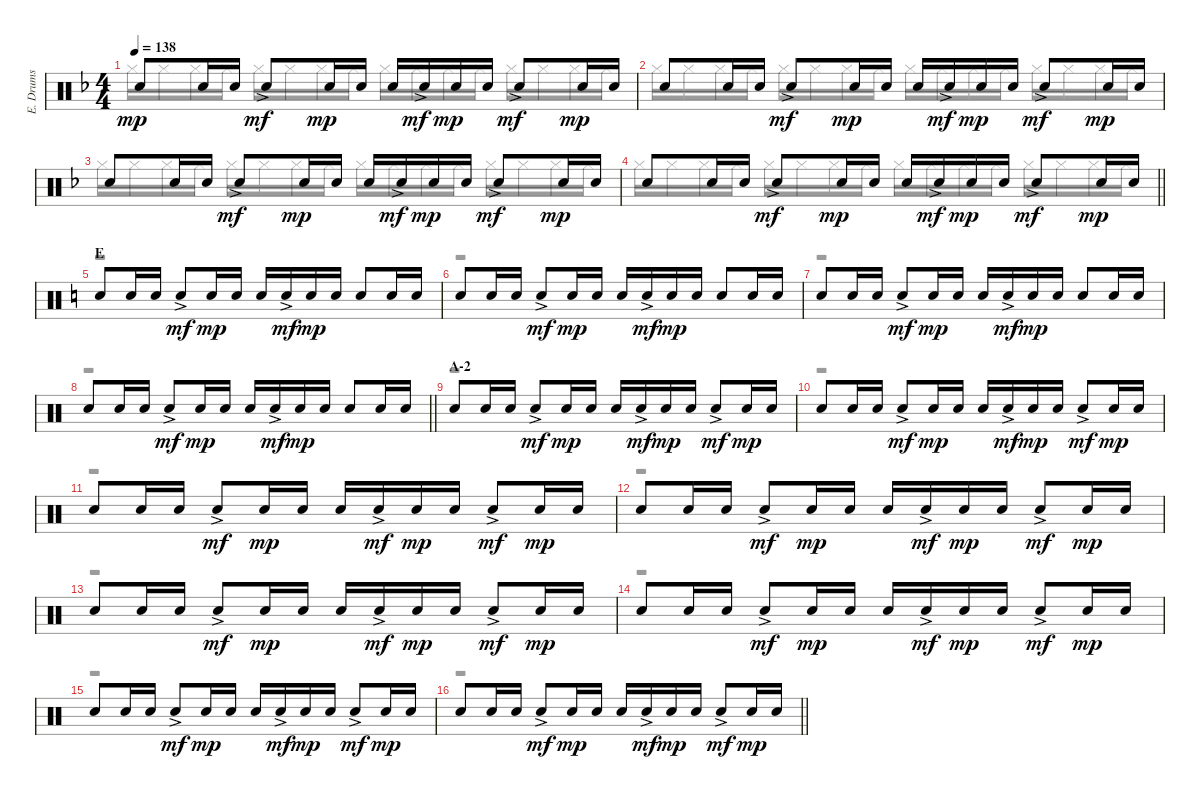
\track ("E. Drums" "E. Drums") {instrument percussion}
\staff {score}
\articulation defaults
\voice
\ts (4 4)
\tempo 138
\clef neutral
\ks f "Electric Snare (hit)".8{dy mp} "Electric Snare (hit)".16 "Electric Snare (hit)".16 "Electric Snare (hit)"{ac}.8{dy mf} "Electric Snare (hit)".16{dy mp} "Electric Snare (hit)".16 "Electric Snare (hit)".16 "Electric Snare (hit)"{ac}.16{dy mf} "Electric Snare (hit)".16{dy mp} "Electric Snare (hit)".16 "Electric Snare (hit)"{ac}.8{dy mf} "Electric Snare (hit)".16{dy mp} "Electric Snare (hit)".16
|
"Electric Snare (hit)".8 "Electric Snare (hit)".16 "Electric Snare (hit)".16 "Electric Snare (hit)"{ac}.8{dy mf} "Electric Snare (hit)".16{dy mp} "Electric Snare (hit)".16 "Electric Snare (hit)".16 "Electric Snare (hit)"{ac}.16{dy mf} "Electric Snare (hit)".16{dy mp} "Electric Snare (hit)".16 "Electric Snare (hit)"{ac}.8{dy mf} "Electric Snare (hit)".16{dy mp} "Electric Snare (hit)".16 |
"Electric Snare (hit)".8 "Electric Snare (hit)".16 "Electric Snare (hit)".16 "Electric Snare (hit)"{ac}.8{dy mf} "Electric Snare (hit)".16{dy mp} "Electric Snare (hit)".16 "Electric Snare (hit)".16 "Electric Snare (hit)"{ac}.16{dy mf} "Electric Snare (hit)".16{dy mp} "Electric Snare (hit)".16 "Electric Snare (hit)"{ac}.8{dy mf} "Electric Snare (hit)".16{dy mp} "Electric Snare (hit)".16 |
\barLineRight lightlight "Electric Snare (hit)".8 "Electric Snare (hit)".16 "Electric Snare (hit)".16 "Electric Snare (hit)"{ac}.8{dy mf} "Electric Snare (hit)".16{dy mp} "Electric Snare (hit)".16 "Electric Snare (hit)".16 "Electric Snare (hit)"{ac}.16{dy mf} "Electric Snare (hit)".16{dy mp} "Electric Snare (hit)".16 "Electric Snare (hit)"{ac}.8{dy mf} "Electric Snare (hit)".16{dy mp} "Electric Snare (hit)".16
|
\section ("" "E")
\ks c "Electric Snare (hit)".8 "Electric Snare (hit)".16 "Electric Snare (hit)".16 "Electric Snare (hit)"{ac}.8{dy mf} "Electric Snare (hit)".16{dy mp} "Electric Snare (hit)".16 "Electric Snare (hit)".16 "Electric Snare (hit)"{ac}.16{dy mf} "Electric Snare (hit)".16{dy mp} "Electric Snare (hit)".16 "Electric Snare (hit)".8 "Electric Snare (hit)".16 "Electric Snare (hit)".16
|
"Electric Snare (hit)".8 "Electric Snare (hit)".16 "Electric Snare (hit)".16 "Electric Snare (hit)"{ac}.8{dy mf} "Electric Snare (hit)".16{dy mp} "Electric Snare (hit)".16 "Electric Snare (hit)".16 "Electric Snare (hit)"{ac}.16{dy mf} "Electric Snare (hit)".16{dy mp} "Electric Snare (hit)".16 "Electric Snare (hit)".8 "Electric Snare (hit)".16 "Electric Snare (hit)".16 |
"Electric Snare (hit)".8 "Electric Snare (hit)".16 "Electric Snare (hit)".16 "Electric Snare (hit)"{ac}.8{dy mf} "Electric Snare (hit)".16{dy mp} "Electric Snare (hit)".16 "Electric Snare (hit)".16 "Electric Snare (hit)"{ac}.16{dy mf} "Electric Snare (hit)".16{dy mp} "Electric Snare (hit)".16 "Electric Snare (hit)".8 "Electric Snare (hit)".16 "Electric Snare (hit)".16 |
\barLineRight lightlight "Electric Snare (hit)".8 "Electric Snare (hit)".16 "Electric Snare (hit)".16 "Electric Snare (hit)"{ac}.8{dy mf} "Electric Snare (hit)".16{dy mp} "Electric Snare (hit)".16 "Electric Snare (hit)".16 "Electric Snare (hit)"{ac}.16{dy mf} "Electric Snare (hit)".16{dy mp} "Electric Snare (hit)".16 "Electric Snare (hit)".8 "Electric Snare (hit)".16 "Electric Snare (hit)".16
|
\section ("" "A-2")
"Electric Snare (hit)".8 "Electric Snare (hit)".16 "Electric Snare (hit)".16 "Electric Snare (hit)"{ac}.8{dy mf} "Electric Snare (hit)".16{dy mp} "Electric Snare (hit)".16 "Electric Snare (hit)".16 "Electric Snare (hit)"{ac}.16{dy mf} "Electric Snare (hit)".16{dy mp} "Electric Snare (hit)".16 "Electric Snare (hit)"{ac}.8{dy mf} "Electric Snare (hit)".16{dy mp} "Electric Snare (hit)".16 |
"Electric Snare (hit)".8 "Electric Snare (hit)".16 "Electric Snare (hit)".16 "Electric Snare (hit)"{ac}.8{dy mf} "Electric Snare (hit)".16{dy mp} "Electric Snare (hit)".16 "Electric Snare (hit)".16 "Electric Snare (hit)"{ac}.16{dy mf} "Electric Snare (hit)".16{dy mp} "Electric Snare (hit)".16 "Electric Snare (hit)"{ac}.8{dy mf} "Electric Snare (hit)".16{dy mp} "Electric Snare (hit)".16 |
"Electric Snare (hit)".8 "Electric Snare (hit)".16 "Electric Snare (hit)".16 "Electric Snare (hit)"{ac}.8{dy mf} "Electric Snare (hit)".16{dy mp} "Electric Snare (hit)".16 "Electric Snare (hit)".16 "Electric Snare (hit)"{ac}.16{dy mf} "Electric Snare (hit)".16{dy mp} "Electric Snare (hit)".16 "Electric Snare (hit)"{ac}.8{dy mf} "Electric Snare (hit)".16{dy mp} "Electric Snare (hit)".16 |
"Electric Snare (hit)".8 "Electric Snare (hit)".16 "Electric Snare (hit)".16 "Electric Snare (hit)"{ac}.8{dy mf} "Electric Snare (hit)".16{dy mp} "Electric Snare (hit)".16 "Electric Snare (hit)".16 "Electric Snare (hit)"{ac}.16{dy mf} "Electric Snare (hit)".16{dy mp} "Electric Snare (hit)".16 "Electric Snare (hit)"{ac}.8{dy mf} "Electric Snare (hit)".16{dy mp} "Electric Snare (hit)".16 |
"Electric Snare (hit)".8 "Electric Snare (hit)".16 "Electric Snare (hit)".16 "Electric Snare (hit)"{ac}.8{dy mf} "Electric Snare (hit)".16{dy mp} "Electric Snare (hit)".16 "Electric Snare (hit)".16 "Electric Snare (hit)"{ac}.16{dy mf} "Electric Snare (hit)".16{dy mp} "Electric Snare (hit)".16 "Electric Snare (hit)"{ac}.8{dy mf} "Electric Snare (hit)".16{dy mp} "Electric Snare (hit)".16 |
"Electric Snare (hit)".8 "Electric Snare (hit)".16 "Electric Snare (hit)".16 "Electric Snare (hit)"{ac}.8{dy mf} "Electric Snare (hit)".16{dy mp} "Electric Snare (hit)".16 "Electric Snare (hit)".16 "Electric Snare (hit)"{ac}.16{dy mf} "Electric Snare (hit)".16{dy mp} "Electric Snare (hit)".16 "Electric Snare (hit)"{ac}.8{dy mf} "Electric Snare (hit)".16{dy mp} "Electric Snare (hit)".16 |
"Electric Snare (hit)".8 "Electric Snare (hit)".16 "Electric Snare (hit)".16 "Electric Snare (hit)"{ac}.8{dy mf} "Electric Snare (hit)".16{dy mp} "Electric Snare (hit)".16 "Electric Snare (hit)".16 "Electric Snare (hit)"{ac}.16{dy mf} "Electric Snare (hit)".16{dy mp} "Electric Snare (hit)".16 "Electric Snare (hit)"{ac}.8{dy mf} "Electric Snare (hit)".16{dy mp} "Electric Snare (hit)".16 |
\barLineRight lightlight "Electric Snare (hit)".8 "Electric Snare (hit)".16 "Electric Snare (hit)".16 "Electric Snare (hit)"{ac}.8{dy mf} "Electric Snare (hit)".16{dy mp} "Electric Snare (hit)".16 "Electric Snare (hit)".16 "Electric Snare (hit)"{ac}.16{dy mf} "Electric Snare (hit)".16{dy mp} "Electric Snare (hit)".16 "Electric Snare (hit)"{ac}.8{dy mf} "Electric Snare (hit)".16{dy mp} "Electric Snare (hit)".16
\voice
\clef neutral
\ottava regular
\simile none
\ks f "Hi-Hat (closed)".16{dy mp} "Hi-Hat (closed)".16 "Hi-Hat (closed)".16 "Hi-Hat (closed)".16 "Hi-Hat (closed)".16 "Hi-Hat (closed)".16 "Hi-Hat (closed)".16 "Hi-Hat (closed)".16 "Hi-Hat (closed)".16 "Hi-Hat (closed)".16 "Hi-Hat (closed)".16 "Hi-Hat (closed)".16 "Hi-Hat (closed)".16 "Hi-Hat (closed)".16 "Hi-Hat (closed)".16 "Hi-Hat (closed)".16
|
"Hi-Hat (closed)".16 "Hi-Hat (closed)".16 "Hi-Hat (closed)".16 "Hi-Hat (closed)".16 "Hi-Hat (closed)".16 "Hi-Hat (closed)".16 "Hi-Hat (closed)".16 "Hi-Hat (closed)".16 "Hi-Hat (closed)".16 "Hi-Hat (closed)".16 "Hi-Hat (closed)".16 "Hi-Hat (closed)".16 "Hi-Hat (closed)".16 "Hi-Hat (closed)".16 "Hi-Hat (closed)".16 "Hi-Hat (closed)".16 |
"Hi-Hat (closed)".16 "Hi-Hat (closed)".16 "Hi-Hat (closed)".16 "Hi-Hat (closed)".16 "Hi-Hat (closed)".16 "Hi-Hat (closed)".16 "Hi-Hat (closed)".16 "Hi-Hat (closed)".16 "Hi-Hat (closed)".16 "Hi-Hat (closed)".16 "Hi-Hat (closed)".16 "Hi-Hat (closed)".16 "Hi-Hat (closed)".16 "Hi-Hat (closed)".16 "Hi-Hat (closed)".16 "Hi-Hat (closed)".16 |
\barLineRight lightlight "Hi-Hat (closed)".16 "Hi-Hat (closed)".16 "Hi-Hat (closed)".16 "Hi-Hat (closed)".16 "Hi-Hat (closed)".16 "Hi-Hat (closed)".16 "Hi-Hat (closed)".16 "Hi-Hat (closed)".16 "Hi-Hat (closed)".16 "Hi-Hat (closed)".16 "Hi-Hat (closed)".16 "Hi-Hat (closed)".16 "Hi-Hat (closed)".16 "Hi-Hat (closed)".16 "Hi-Hat (closed)".16 "Hi-Hat (closed)".16
|
\ks c
r.1 |
r.1 |
r.1 |
\barLineRight lightlight
r.1 |
r.1 |
r.1 |
r.1 |
r.1 |
r.1 |
r.1 |
r.1 |
\barLineRight lightlight
r.1
